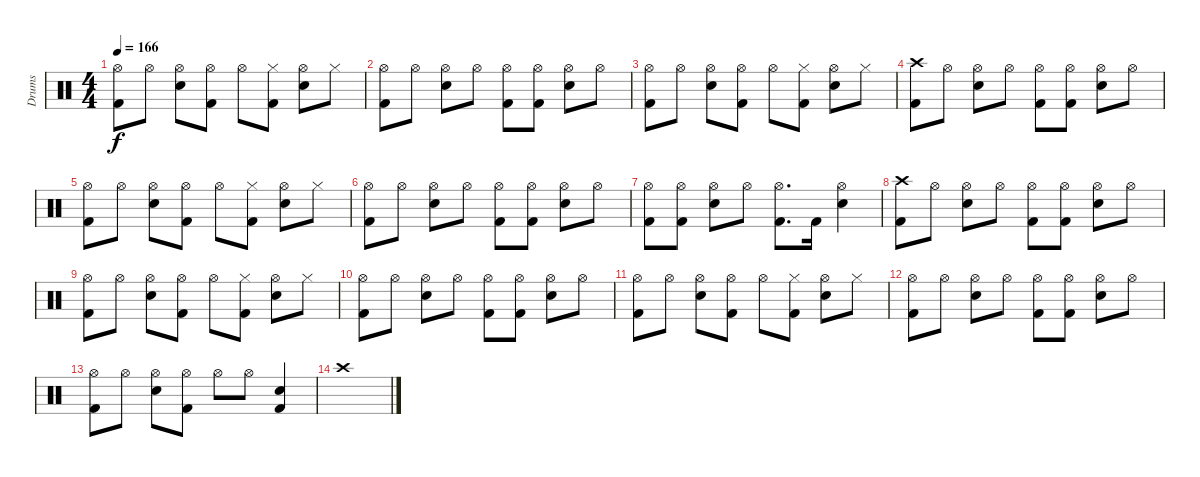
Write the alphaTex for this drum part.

\track ("Drums" "Drums") {instrument percussion}
\staff {score}
\articulation defaults
\ts (4 4)
\tempo 166
\clef neutral
\ks c
("Hi-Hat (open)" "Kick (hit) 2").8{dy f} "Hi-Hat (open)".8 ("Hi-Hat (open)" "Snare (hit) 2").8 ("Hi-Hat (open)" "Kick (hit) 2").8 "Hi-Hat (open)".8 ("Hi-Hat (closed)" "Kick (hit) 2").8 ("Hi-Hat (open)" "Snare (hit) 2").8 "Hi-Hat (closed)".8 |
("Hi-Hat (open)" "Kick (hit) 2").8 "Hi-Hat (open)".8 ("Hi-Hat (open)" "Snare (hit) 2").8 "Hi-Hat (open)".8 ("Hi-Hat (open)" "Kick (hit) 2").8 ("Hi-Hat (open)" "Kick (hit) 2").8 ("Hi-Hat (open)" "Snare (hit) 2").8 "Hi-Hat (open)".8 |
("Hi-Hat (open)" "Kick (hit) 2").8 "Hi-Hat (open)".8 ("Hi-Hat (open)" "Snare (hit) 2").8 ("Hi-Hat (open)" "Kick (hit) 2").8 "Hi-Hat (open)".8 ("Hi-Hat (closed)" "Kick (hit) 2").8 ("Hi-Hat (open)" "Snare (hit) 2").8 "Hi-Hat (closed)".8 |
("Crash high (hit)" "Kick (hit) 2").8 "Hi-Hat (open)".8 ("Hi-Hat (open)" "Snare (hit) 2").8 "Hi-Hat (open)".8 ("Hi-Hat (open)" "Kick (hit) 2").8 ("Hi-Hat (open)" "Kick (hit) 2").8 ("Hi-Hat (open)" "Snare (hit) 2").8 "Hi-Hat (open)".8 |
("Hi-Hat (open)" "Kick (hit) 2").8 "Hi-Hat (open)".8 ("Hi-Hat (open)" "Snare (hit) 2").8 ("Hi-Hat (open)" "Kick (hit) 2").8 "Hi-Hat (open)".8 ("Hi-Hat (closed)" "Kick (hit) 2").8 ("Hi-Hat (open)" "Snare (hit) 2").8 "Hi-Hat (closed)".8 |
("Hi-Hat (open)" "Kick (hit) 2").8 "Hi-Hat (open)".8 ("Hi-Hat (open)" "Snare (hit) 2").8 "Hi-Hat (open)".8 ("Hi-Hat (open)" "Kick (hit) 2").8 ("Hi-Hat (open)" "Kick (hit) 2").8 ("Hi-Hat (open)" "Snare (hit) 2").8 "Hi-Hat (open)".8 |
("Hi-Hat (open)" "Kick (hit) 2").8 ("Hi-Hat (open)" "Kick (hit) 2").8 ("Hi-Hat (open)" "Snare (hit) 2").8 "Hi-Hat (open)".8 ("Hi-Hat (open)" "Kick (hit) 2").8{d} "Kick (hit) 2".16 ("Hi-Hat (open)" "Snare (hit) 2").4 |
("Crash high (hit)" "Kick (hit) 2").8 "Hi-Hat (open)".8 ("Hi-Hat (open)" "Snare (hit) 2").8 "Hi-Hat (open)".8 ("Hi-Hat (open)" "Kick (hit) 2").8 ("Hi-Hat (open)" "Kick (hit) 2").8 ("Hi-Hat (open)" "Snare (hit) 2").8 "Hi-Hat (open)".8 |
("Hi-Hat (open)" "Kick (hit) 2").8 "Hi-Hat (open)".8 ("Hi-Hat (open)" "Snare (hit) 2").8 ("Hi-Hat (open)" "Kick (hit) 2").8 "Hi-Hat (open)".8 ("Hi-Hat (closed)" "Kick (hit) 2").8 ("Hi-Hat (open)" "Snare (hit) 2").8 "Hi-Hat (closed)".8 |
("Hi-Hat (open)" "Kick (hit) 2").8 "Hi-Hat (open)".8 ("Hi-Hat (open)" "Snare (hit) 2").8 "Hi-Hat (open)".8 ("Hi-Hat (open)" "Kick (hit) 2").8 ("Hi-Hat (open)" "Kick (hit) 2").8 ("Hi-Hat (open)" "Snare (hit) 2").8 "Hi-Hat (open)".8 |
("Hi-Hat (open)" "Kick (hit) 2").8 "Hi-Hat (open)".8 ("Hi-Hat (open)" "Snare (hit) 2").8 ("Hi-Hat (open)" "Kick (hit) 2").8 "Hi-Hat (open)".8 ("Hi-Hat (closed)" "Kick (hit) 2").8 ("Hi-Hat (open)" "Snare (hit) 2").8 "Hi-Hat (closed)".8 |
("Hi-Hat (open)" "Kick (hit) 2").8 "Hi-Hat (open)".8 ("Hi-Hat (open)" "Snare (hit) 2").8 "Hi-Hat (open)".8 ("Hi-Hat (open)" "Kick (hit) 2").8 ("Hi-Hat (open)" "Kick (hit) 2").8 ("Hi-Hat (open)" "Snare (hit) 2").8 "Hi-Hat (open)".8 |
("Hi-Hat (open)" "Kick (hit) 2").8 "Hi-Hat (open)".8 ("Hi-Hat (open)" "Snare (hit) 2").8 ("Hi-Hat (open)" "Kick (hit) 2").8 "Hi-Hat (open)".8 "Hi-Hat (open)".8 ("Snare (hit) 2" "Kick (hit) 2").4 |
"Crash high (hit)".1
